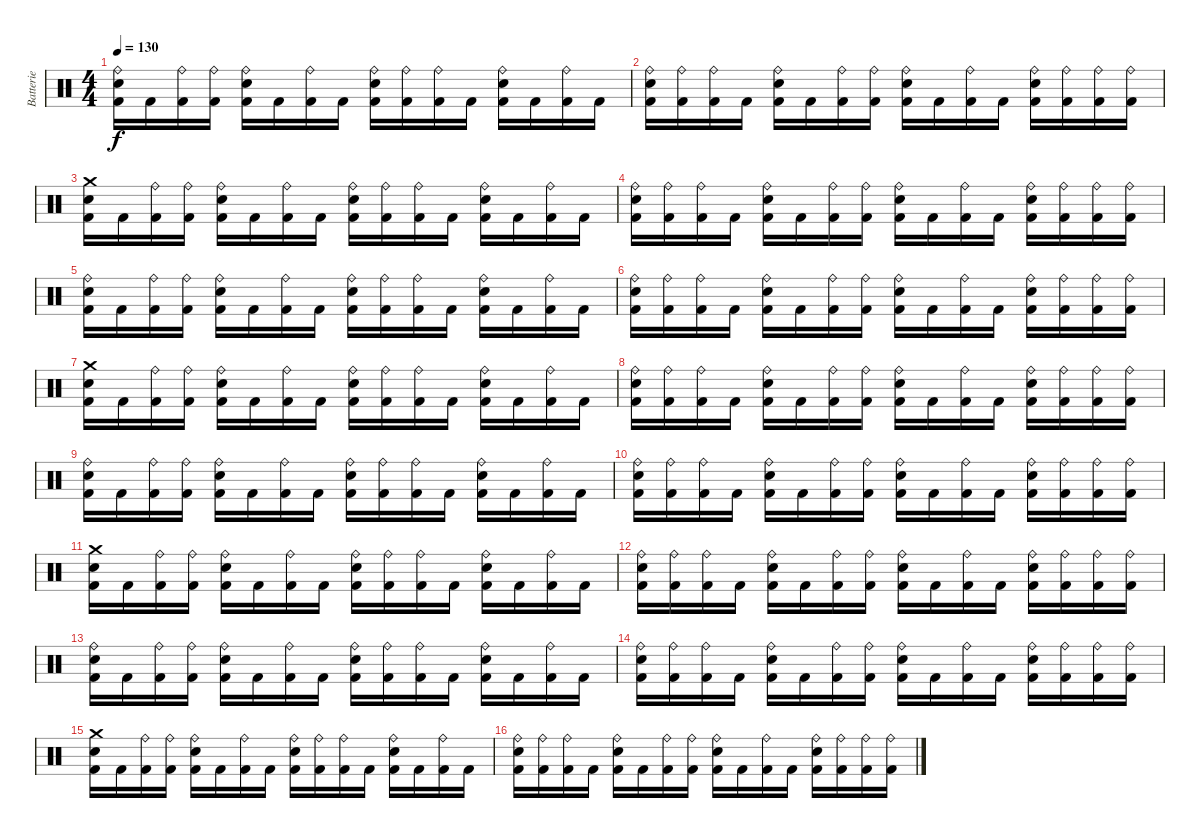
\track ("Batterie" "Batterie") {instrument percussion}
\staff {score}
\articulation defaults
\ts (4 4)
\tempo 130
\clef neutral
\ks c
("Ride (bell)" "Snare (hit) 2" "Kick (hit) 2").16{dy f} "Kick (hit) 2".16 ("Ride (bell)" "Kick (hit) 2").16 ("Ride (bell)" "Kick (hit) 2").16 ("Ride (bell)" "Snare (hit) 2" "Kick (hit) 2").16 "Kick (hit) 2".16 ("Ride (bell)" "Kick (hit) 2").16 "Kick (hit) 2".16 ("Ride (bell)" "Snare (hit) 2" "Kick (hit) 2").16 ("Ride (bell)" "Kick (hit) 2").16 ("Ride (bell)" "Kick (hit) 2").16 "Kick (hit) 2".16 ("Ride (bell)" "Snare (hit) 2" "Kick (hit) 2").16 "Kick (hit) 2".16 ("Ride (bell)" "Kick (hit) 2").16 "Kick (hit) 2".16 |
("Ride (bell)" "Snare (hit) 2" "Kick (hit) 2").16 ("Ride (bell)" "Kick (hit) 2").16 ("Ride (bell)" "Kick (hit) 2").16 "Kick (hit) 2".16 ("Ride (bell)" "Snare (hit) 2" "Kick (hit) 2").16 "Kick (hit) 2".16 ("Ride (bell)" "Kick (hit) 2").16 ("Ride (bell)" "Kick (hit) 2").16 ("Ride (bell)" "Snare (hit) 2" "Kick (hit) 2").16 "Kick (hit) 2".16 ("Ride (bell)" "Kick (hit) 2").16 "Kick (hit) 2".16 ("Ride (bell)" "Snare (hit) 2" "Kick (hit) 2").16 ("Ride (bell)" "Kick (hit) 2").16 ("Ride (bell)" "Kick (hit) 2").16 ("Ride (bell)" "Kick (hit) 2").16 |
("Crash medium (hit)" "Snare (hit) 2" "Kick (hit) 2").16 "Kick (hit) 2".16 ("Ride (bell)" "Kick (hit) 2").16 ("Ride (bell)" "Kick (hit) 2").16 ("Ride (bell)" "Snare (hit) 2" "Kick (hit) 2").16 "Kick (hit) 2".16 ("Ride (bell)" "Kick (hit) 2").16 "Kick (hit) 2".16 ("Ride (bell)" "Snare (hit) 2" "Kick (hit) 2").16 ("Ride (bell)" "Kick (hit) 2").16 ("Ride (bell)" "Kick (hit) 2").16 "Kick (hit) 2".16 ("Ride (bell)" "Snare (hit) 2" "Kick (hit) 2").16 "Kick (hit) 2".16 ("Ride (bell)" "Kick (hit) 2").16 "Kick (hit) 2".16 |
("Ride (bell)" "Snare (hit) 2" "Kick (hit) 2").16 ("Ride (bell)" "Kick (hit) 2").16 ("Ride (bell)" "Kick (hit) 2").16 "Kick (hit) 2".16 ("Ride (bell)" "Snare (hit) 2" "Kick (hit) 2").16 "Kick (hit) 2".16 ("Ride (bell)" "Kick (hit) 2").16 ("Ride (bell)" "Kick (hit) 2").16 ("Ride (bell)" "Snare (hit) 2" "Kick (hit) 2").16 "Kick (hit) 2".16 ("Ride (bell)" "Kick (hit) 2").16 "Kick (hit) 2".16 ("Ride (bell)" "Snare (hit) 2" "Kick (hit) 2").16 ("Ride (bell)" "Kick (hit) 2").16 ("Ride (bell)" "Kick (hit) 2").16 ("Ride (bell)" "Kick (hit) 2").16 |
("Ride (bell)" "Snare (hit) 2" "Kick (hit) 2").16 "Kick (hit) 2".16 ("Ride (bell)" "Kick (hit) 2").16 ("Ride (bell)" "Kick (hit) 2").16 ("Ride (bell)" "Snare (hit) 2" "Kick (hit) 2").16 "Kick (hit) 2".16 ("Ride (bell)" "Kick (hit) 2").16 "Kick (hit) 2".16 ("Ride (bell)" "Snare (hit) 2" "Kick (hit) 2").16 ("Ride (bell)" "Kick (hit) 2").16 ("Ride (bell)" "Kick (hit) 2").16 "Kick (hit) 2".16 ("Ride (bell)" "Snare (hit) 2" "Kick (hit) 2").16 "Kick (hit) 2".16 ("Ride (bell)" "Kick (hit) 2").16 "Kick (hit) 2".16 |
("Ride (bell)" "Snare (hit) 2" "Kick (hit) 2").16 ("Ride (bell)" "Kick (hit) 2").16 ("Ride (bell)" "Kick (hit) 2").16 "Kick (hit) 2".16 ("Ride (bell)" "Snare (hit) 2" "Kick (hit) 2").16 "Kick (hit) 2".16 ("Ride (bell)" "Kick (hit) 2").16 ("Ride (bell)" "Kick (hit) 2").16 ("Ride (bell)" "Snare (hit) 2" "Kick (hit) 2").16 "Kick (hit) 2".16 ("Ride (bell)" "Kick (hit) 2").16 "Kick (hit) 2".16 ("Ride (bell)" "Snare (hit) 2" "Kick (hit) 2").16 ("Ride (bell)" "Kick (hit) 2").16 ("Ride (bell)" "Kick (hit) 2").16 ("Ride (bell)" "Kick (hit) 2").16 |
("Crash medium (hit)" "Snare (hit) 2" "Kick (hit) 2").16 "Kick (hit) 2".16 ("Ride (bell)" "Kick (hit) 2").16 ("Ride (bell)" "Kick (hit) 2").16 ("Ride (bell)" "Snare (hit) 2" "Kick (hit) 2").16 "Kick (hit) 2".16 ("Ride (bell)" "Kick (hit) 2").16 "Kick (hit) 2".16 ("Ride (bell)" "Snare (hit) 2" "Kick (hit) 2").16 ("Ride (bell)" "Kick (hit) 2").16 ("Ride (bell)" "Kick (hit) 2").16 "Kick (hit) 2".16 ("Ride (bell)" "Snare (hit) 2" "Kick (hit) 2").16 "Kick (hit) 2".16 ("Ride (bell)" "Kick (hit) 2").16 "Kick (hit) 2".16 |
("Ride (bell)" "Snare (hit) 2" "Kick (hit) 2").16 ("Ride (bell)" "Kick (hit) 2").16 ("Ride (bell)" "Kick (hit) 2").16 "Kick (hit) 2".16 ("Ride (bell)" "Snare (hit) 2" "Kick (hit) 2").16 "Kick (hit) 2".16 ("Ride (bell)" "Kick (hit) 2").16 ("Ride (bell)" "Kick (hit) 2").16 ("Ride (bell)" "Snare (hit) 2" "Kick (hit) 2").16 "Kick (hit) 2".16 ("Ride (bell)" "Kick (hit) 2").16 "Kick (hit) 2".16 ("Ride (bell)" "Snare (hit) 2" "Kick (hit) 2").16 ("Ride (bell)" "Kick (hit) 2").16 ("Ride (bell)" "Kick (hit) 2").16 ("Ride (bell)" "Kick (hit) 2").16 |
("Ride (bell)" "Snare (hit) 2" "Kick (hit) 2").16 "Kick (hit) 2".16 ("Ride (bell)" "Kick (hit) 2").16 ("Ride (bell)" "Kick (hit) 2").16 ("Ride (bell)" "Snare (hit) 2" "Kick (hit) 2").16 "Kick (hit) 2".16 ("Ride (bell)" "Kick (hit) 2").16 "Kick (hit) 2".16 ("Ride (bell)" "Snare (hit) 2" "Kick (hit) 2").16 ("Ride (bell)" "Kick (hit) 2").16 ("Ride (bell)" "Kick (hit) 2").16 "Kick (hit) 2".16 ("Ride (bell)" "Snare (hit) 2" "Kick (hit) 2").16 "Kick (hit) 2".16 ("Ride (bell)" "Kick (hit) 2").16 "Kick (hit) 2".16 |
("Ride (bell)" "Snare (hit) 2" "Kick (hit) 2").16 ("Ride (bell)" "Kick (hit) 2").16 ("Ride (bell)" "Kick (hit) 2").16 "Kick (hit) 2".16 ("Ride (bell)" "Snare (hit) 2" "Kick (hit) 2").16 "Kick (hit) 2".16 ("Ride (bell)" "Kick (hit) 2").16 ("Ride (bell)" "Kick (hit) 2").16 ("Ride (bell)" "Snare (hit) 2" "Kick (hit) 2").16 "Kick (hit) 2".16 ("Ride (bell)" "Kick (hit) 2").16 "Kick (hit) 2".16 ("Ride (bell)" "Snare (hit) 2" "Kick (hit) 2").16 ("Ride (bell)" "Kick (hit) 2").16 ("Ride (bell)" "Kick (hit) 2").16 ("Ride (bell)" "Kick (hit) 2").16 |
("Crash medium (hit)" "Snare (hit) 2" "Kick (hit) 2").16 "Kick (hit) 2".16 ("Ride (bell)" "Kick (hit) 2").16 ("Ride (bell)" "Kick (hit) 2").16 ("Ride (bell)" "Snare (hit) 2" "Kick (hit) 2").16 "Kick (hit) 2".16 ("Ride (bell)" "Kick (hit) 2").16 "Kick (hit) 2".16 ("Ride (bell)" "Snare (hit) 2" "Kick (hit) 2").16 ("Ride (bell)" "Kick (hit) 2").16 ("Ride (bell)" "Kick (hit) 2").16 "Kick (hit) 2".16 ("Ride (bell)" "Snare (hit) 2" "Kick (hit) 2").16 "Kick (hit) 2".16 ("Ride (bell)" "Kick (hit) 2").16 "Kick (hit) 2".16 |
("Ride (bell)" "Snare (hit) 2" "Kick (hit) 2").16 ("Ride (bell)" "Kick (hit) 2").16 ("Ride (bell)" "Kick (hit) 2").16 "Kick (hit) 2".16 ("Ride (bell)" "Snare (hit) 2" "Kick (hit) 2").16 "Kick (hit) 2".16 ("Ride (bell)" "Kick (hit) 2").16 ("Ride (bell)" "Kick (hit) 2").16 ("Ride (bell)" "Snare (hit) 2" "Kick (hit) 2").16 "Kick (hit) 2".16 ("Ride (bell)" "Kick (hit) 2").16 "Kick (hit) 2".16 ("Ride (bell)" "Snare (hit) 2" "Kick (hit) 2").16 ("Ride (bell)" "Kick (hit) 2").16 ("Ride (bell)" "Kick (hit) 2").16 ("Ride (bell)" "Kick (hit) 2").16 |
("Ride (bell)" "Snare (hit) 2" "Kick (hit) 2").16 "Kick (hit) 2".16 ("Ride (bell)" "Kick (hit) 2").16 ("Ride (bell)" "Kick (hit) 2").16 ("Ride (bell)" "Snare (hit) 2" "Kick (hit) 2").16 "Kick (hit) 2".16 ("Ride (bell)" "Kick (hit) 2").16 "Kick (hit) 2".16 ("Ride (bell)" "Snare (hit) 2" "Kick (hit) 2").16 ("Ride (bell)" "Kick (hit) 2").16 ("Ride (bell)" "Kick (hit) 2").16 "Kick (hit) 2".16 ("Ride (bell)" "Snare (hit) 2" "Kick (hit) 2").16 "Kick (hit) 2".16 ("Ride (bell)" "Kick (hit) 2").16 "Kick (hit) 2".16 |
("Ride (bell)" "Snare (hit) 2" "Kick (hit) 2").16 ("Ride (bell)" "Kick (hit) 2").16 ("Ride (bell)" "Kick (hit) 2").16 "Kick (hit) 2".16 ("Ride (bell)" "Snare (hit) 2" "Kick (hit) 2").16 "Kick (hit) 2".16 ("Ride (bell)" "Kick (hit) 2").16 ("Ride (bell)" "Kick (hit) 2").16 ("Ride (bell)" "Snare (hit) 2" "Kick (hit) 2").16 "Kick (hit) 2".16 ("Ride (bell)" "Kick (hit) 2").16 "Kick (hit) 2".16 ("Ride (bell)" "Snare (hit) 2" "Kick (hit) 2").16 ("Ride (bell)" "Kick (hit) 2").16 ("Ride (bell)" "Kick (hit) 2").16 ("Ride (bell)" "Kick (hit) 2").16 |
("Crash medium (hit)" "Snare (hit) 2" "Kick (hit) 2").16 "Kick (hit) 2".16 ("Ride (bell)" "Kick (hit) 2").16 ("Ride (bell)" "Kick (hit) 2").16 ("Ride (bell)" "Snare (hit) 2" "Kick (hit) 2").16 "Kick (hit) 2".16 ("Ride (bell)" "Kick (hit) 2").16 "Kick (hit) 2".16 ("Ride (bell)" "Snare (hit) 2" "Kick (hit) 2").16 ("Ride (bell)" "Kick (hit) 2").16 ("Ride (bell)" "Kick (hit) 2").16 "Kick (hit) 2".16 ("Ride (bell)" "Snare (hit) 2" "Kick (hit) 2").16 "Kick (hit) 2".16 ("Ride (bell)" "Kick (hit) 2").16 "Kick (hit) 2".16 |
("Ride (bell)" "Snare (hit) 2" "Kick (hit) 2").16 ("Ride (bell)" "Kick (hit) 2").16 ("Ride (bell)" "Kick (hit) 2").16 "Kick (hit) 2".16 ("Ride (bell)" "Snare (hit) 2" "Kick (hit) 2").16 "Kick (hit) 2".16 ("Ride (bell)" "Kick (hit) 2").16 ("Ride (bell)" "Kick (hit) 2").16 ("Ride (bell)" "Snare (hit) 2" "Kick (hit) 2").16 "Kick (hit) 2".16 ("Ride (bell)" "Kick (hit) 2").16 "Kick (hit) 2".16 ("Ride (bell)" "Snare (hit) 2" "Kick (hit) 2").16 ("Ride (bell)" "Kick (hit) 2").16 ("Ride (bell)" "Kick (hit) 2").16 ("Ride (bell)" "Kick (hit) 2").16
